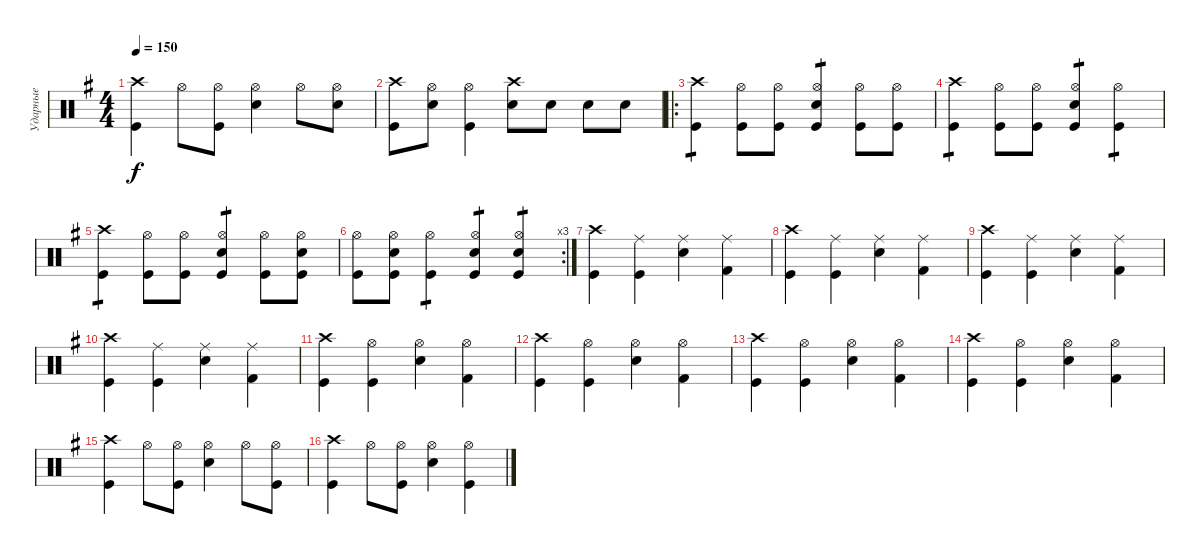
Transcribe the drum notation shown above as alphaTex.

\track ("Ударные" "Ударные") {instrument percussion}
\staff {score}
\articulation defaults
\ts (4 4)
\tempo 150
\clef neutral
\ks g
("Crash high (hit)" "Kick (hit)").4{dy f} "Hi-Hat (open)".8 ("Hi-Hat (open)" "Kick (hit)").8 ("Hi-Hat (open)" "Snare (hit) 2").4 "Hi-Hat (open)".8 ("Hi-Hat (open)" "Snare (hit) 2").8 |
("Crash high (hit)" "Kick (hit)").8 ("Hi-Hat (open)" "Snare (hit) 2").8 ("Hi-Hat (open)" "Kick (hit)").4 ("Crash high (hit)" "Snare (hit) 2").8 "Snare (hit) 2".8 "Snare (hit) 2".8 "Snare (hit) 2".8 |
\ro
("Crash high (hit)" "Kick (hit)").4{tp 1} ("Hi-Hat (open)" "Kick (hit)").8 ("Hi-Hat (open)" "Kick (hit)").8 ("Hi-Hat (open)" "Snare (hit) 2" "Kick (hit)").4{tp 1} ("Hi-Hat (open)" "Kick (hit)").8 ("Hi-Hat (open)" "Kick (hit)").8 |
("Crash high (hit)" "Kick (hit)").4{tp 1} ("Hi-Hat (open)" "Kick (hit)").8 ("Hi-Hat (open)" "Kick (hit)").8 ("Hi-Hat (open)" "Snare (hit) 2" "Kick (hit)").4{tp 1} ("Hi-Hat (open)" "Kick (hit)").4{tp 1} |
("Crash high (hit)" "Kick (hit)").4{tp 1} ("Hi-Hat (open)" "Kick (hit)").8 ("Hi-Hat (open)" "Kick (hit)").8 ("Hi-Hat (open)" "Snare (hit) 2" "Kick (hit)").4{tp 1} ("Hi-Hat (open)" "Kick (hit)").8 ("Hi-Hat (open)" "Snare (hit) 2" "Kick (hit)").8 |
\rc 3
("Hi-Hat (open)" "Kick (hit)").8 ("Hi-Hat (open)" "Snare (hit) 2" "Kick (hit)").8 ("Hi-Hat (open)" "Kick (hit)").4{tp 1} ("Hi-Hat (open)" "Snare (hit) 2" "Kick (hit)").4{tp 1} ("Hi-Hat (open)" "Snare (hit) 2" "Kick (hit)").4{tp 1} |
("Crash high (hit)" "Kick (hit)").4 ("Ride (middle)" "Kick (hit)").4 ("Ride (middle)" "Snare (hit) 2").4 ("Ride (middle)" "Kick (hit) 2").4 |
("Crash high (hit)" "Kick (hit)").4 ("Ride (middle)" "Kick (hit)").4 ("Ride (middle)" "Snare (hit) 2").4 ("Ride (middle)" "Kick (hit) 2").4 |
("Crash high (hit)" "Kick (hit)").4 ("Ride (middle)" "Kick (hit)").4 ("Ride (middle)" "Snare (hit) 2").4 ("Ride (middle)" "Kick (hit) 2").4 |
("Crash high (hit)" "Kick (hit)").4 ("Ride (middle)" "Kick (hit)").4 ("Ride (middle)" "Snare (hit) 2").4 ("Ride (middle)" "Kick (hit) 2").4 |
("Crash high (hit)" "Kick (hit)").4 ("Hi-Hat (open)" "Kick (hit)").4 ("Hi-Hat (open)" "Snare (hit) 2").4 ("Hi-Hat (open)" "Kick (hit) 2").4 |
("Crash high (hit)" "Kick (hit)").4 ("Hi-Hat (open)" "Kick (hit)").4 ("Hi-Hat (open)" "Snare (hit) 2").4 ("Hi-Hat (open)" "Kick (hit) 2").4 |
("Crash high (hit)" "Kick (hit)").4 ("Hi-Hat (open)" "Kick (hit)").4 ("Hi-Hat (open)" "Snare (hit) 2").4 ("Hi-Hat (open)" "Kick (hit) 2").4 |
("Crash high (hit)" "Kick (hit)").4 ("Hi-Hat (open)" "Kick (hit)").4 ("Hi-Hat (open)" "Snare (hit) 2").4 ("Hi-Hat (open)" "Kick (hit) 2").4 |
("Crash high (hit)" "Kick (hit)").4 "Hi-Hat (open)".8 ("Hi-Hat (open)" "Kick (hit)").8 ("Hi-Hat (open)" "Snare (hit) 2").4 "Hi-Hat (open)".8 ("Hi-Hat (open)" "Kick (hit)").8 |
("Crash high (hit)" "Kick (hit)").4 "Hi-Hat (open)".8 ("Hi-Hat (open)" "Kick (hit)").8 ("Hi-Hat (open)" "Snare (hit) 2").4 ("Hi-Hat (open)" "Kick (hit)").4
